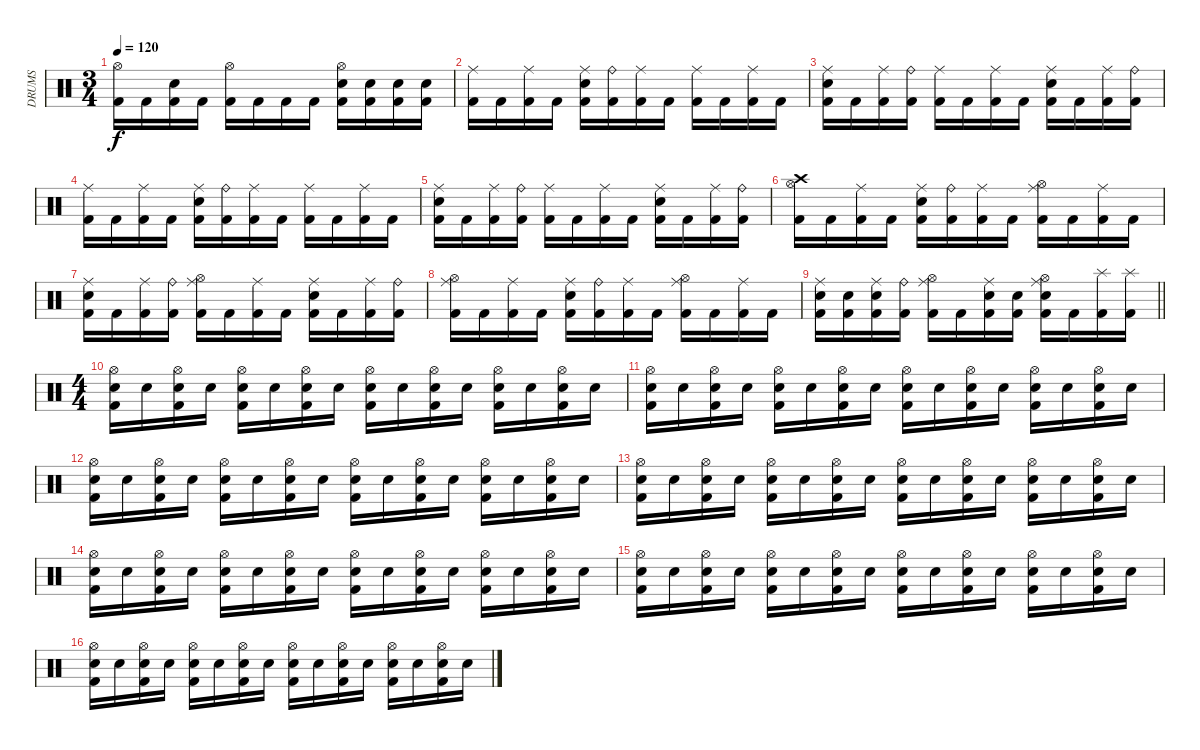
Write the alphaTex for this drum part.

\track ("DRUMS" "DRUMS") {instrument percussion}
\staff {score}
\articulation defaults
\ts (3 4)
\tempo 120
\clef neutral
\ks c
("Hi-Hat (open)" "Kick (hit) 2").16{dy f} "Kick (hit) 2".16 ("Electric Snare (hit)" "Kick (hit) 2").16 "Kick (hit) 2".16 ("Hi-Hat (open)" "Kick (hit) 2").16 "Kick (hit) 2".16 "Kick (hit) 2".16 "Kick (hit) 2".16 ("Hi-Hat (open)" "Electric Snare (hit)" "Kick (hit) 2").16 ("Electric Snare (hit)" "Kick (hit) 2").16 ("Electric Snare (hit)" "Kick (hit) 2").16 ("Electric Snare (hit)" "Kick (hit) 2").16 |
("Ride (middle)" "Kick (hit) 2").16 "Kick (hit) 2".16 ("Ride (middle)" "Kick (hit) 2").16 "Kick (hit) 2".16 ("Ride (middle)" "Electric Snare (hit)" "Kick (hit) 2").16 ("Ride (bell)" "Kick (hit) 2").16 ("Ride (middle)" "Kick (hit) 2").16 "Kick (hit) 2".16 ("Ride (middle)" "Kick (hit) 2").16 "Kick (hit) 2".16 ("Ride (middle)" "Kick (hit) 2").16 "Kick (hit) 2".16 |
("Ride (middle)" "Electric Snare (hit)" "Kick (hit) 2").16 "Kick (hit) 2".16 ("Ride (middle)" "Kick (hit) 2").16 ("Ride (bell)" "Kick (hit) 2").16 ("Ride (middle)" "Kick (hit) 2").16 "Kick (hit) 2".16 ("Ride (middle)" "Kick (hit) 2").16 "Kick (hit) 2".16 ("Ride (middle)" "Electric Snare (hit)" "Kick (hit) 2").16 "Kick (hit) 2".16 ("Ride (middle)" "Kick (hit) 2").16 ("Ride (bell)" "Kick (hit) 2").16 |
("Ride (middle)" "Kick (hit) 2").16 "Kick (hit) 2".16 ("Ride (middle)" "Kick (hit) 2").16 "Kick (hit) 2".16 ("Ride (middle)" "Electric Snare (hit)" "Kick (hit) 2").16 ("Ride (bell)" "Kick (hit) 2").16 ("Ride (middle)" "Kick (hit) 2").16 "Kick (hit) 2".16 ("Ride (middle)" "Kick (hit) 2").16 "Kick (hit) 2".16 ("Ride (middle)" "Kick (hit) 2").16 "Kick (hit) 2".16 |
("Ride (middle)" "Electric Snare (hit)" "Kick (hit) 2").16 "Kick (hit) 2".16 ("Ride (middle)" "Kick (hit) 2").16 ("Ride (bell)" "Kick (hit) 2").16 ("Ride (middle)" "Kick (hit) 2").16 "Kick (hit) 2".16 ("Ride (middle)" "Kick (hit) 2").16 "Kick (hit) 2".16 ("Ride (middle)" "Electric Snare (hit)" "Kick (hit) 2").16 "Kick (hit) 2".16 ("Ride (middle)" "Kick (hit) 2").16 ("Ride (bell)" "Kick (hit) 2").16 |
("Crash high (hit)" "Hi-Hat (open)" "Kick (hit) 2").16 "Kick (hit) 2".16 ("Ride (middle)" "Kick (hit) 2").16 "Kick (hit) 2".16 ("Ride (middle)" "Electric Snare (hit)" "Kick (hit) 2").16 ("Ride (bell)" "Kick (hit) 2").16 ("Ride (middle)" "Kick (hit) 2").16 "Kick (hit) 2".16 ("Ride (middle)" "Hi-Hat (open)" "Kick (hit) 2").16 "Kick (hit) 2".16 ("Ride (middle)" "Kick (hit) 2").16 "Kick (hit) 2".16 |
("Ride (middle)" "Electric Snare (hit)" "Kick (hit) 2").16 "Kick (hit) 2".16 ("Ride (middle)" "Kick (hit) 2").16 ("Ride (bell)" "Kick (hit) 2").16 ("Ride (middle)" "Hi-Hat (open)" "Kick (hit) 2").16 "Kick (hit) 2".16 ("Ride (middle)" "Kick (hit) 2").16 "Kick (hit) 2".16 ("Ride (middle)" "Electric Snare (hit)" "Kick (hit) 2").16 "Kick (hit) 2".16 ("Ride (middle)" "Kick (hit) 2").16 ("Ride (bell)" "Kick (hit) 2").16 |
("Ride (middle)" "Hi-Hat (open)" "Kick (hit) 2").16 "Kick (hit) 2".16 ("Ride (middle)" "Kick (hit) 2").16 "Kick (hit) 2".16 ("Ride (middle)" "Electric Snare (hit)" "Kick (hit) 2").16 ("Ride (bell)" "Kick (hit) 2").16 ("Ride (middle)" "Kick (hit) 2").16 "Kick (hit) 2".16 ("Ride (middle)" "Hi-Hat (open)" "Kick (hit) 2").16 "Kick (hit) 2".16 ("Ride (middle)" "Kick (hit) 2").16 "Kick (hit) 2".16 |
\barLineRight lightlight
("Ride (middle)" "Electric Snare (hit)" "Kick (hit) 2").16 ("Electric Snare (hit)" "Kick (hit) 2").16 ("Ride (middle)" "Electric Snare (hit)" "Kick (hit) 2").16 ("Ride (bell)" "Kick (hit) 2").16 ("Ride (middle)" "Hi-Hat (open)" "Kick (hit) 2").16 "Kick (hit) 2".16 ("Ride (middle)" "Electric Snare (hit)" "Kick (hit) 2").16 ("Electric Snare (hit)" "Kick (hit) 2").16 ("Ride (middle)" "Hi-Hat (open)" "Electric Snare (hit)" "Kick (hit) 2").16 "Kick (hit) 2".16 ("Splash (hit)" "Kick (hit) 2").16 ("Splash (hit)" "Kick (hit) 2").16 |
\ts (4 4)
("Hi-Hat (open)" "Electric Snare (hit)" "Kick (hit) 2").16 "Electric Snare (hit)".16 ("Hi-Hat (open)" "Electric Snare (hit)" "Kick (hit) 2").16 "Electric Snare (hit)".16 ("Hi-Hat (open)" "Electric Snare (hit)" "Kick (hit) 2").16 "Electric Snare (hit)".16 ("Hi-Hat (open)" "Electric Snare (hit)" "Kick (hit) 2").16 "Electric Snare (hit)".16 ("Hi-Hat (open)" "Electric Snare (hit)" "Kick (hit) 2").16 "Electric Snare (hit)".16 ("Hi-Hat (open)" "Electric Snare (hit)" "Kick (hit) 2").16 "Electric Snare (hit)".16 ("Hi-Hat (open)" "Electric Snare (hit)" "Kick (hit) 2").16 "Electric Snare (hit)".16 ("Hi-Hat (open)" "Electric Snare (hit)" "Kick (hit) 2").16 "Electric Snare (hit)".16 |
("Hi-Hat (open)" "Electric Snare (hit)" "Kick (hit) 2").16 "Electric Snare (hit)".16 ("Hi-Hat (open)" "Electric Snare (hit)" "Kick (hit) 2").16 "Electric Snare (hit)".16 ("Hi-Hat (open)" "Electric Snare (hit)" "Kick (hit) 2").16 "Electric Snare (hit)".16 ("Hi-Hat (open)" "Electric Snare (hit)" "Kick (hit) 2").16 "Electric Snare (hit)".16 ("Hi-Hat (open)" "Electric Snare (hit)" "Kick (hit) 2").16 "Electric Snare (hit)".16 ("Hi-Hat (open)" "Electric Snare (hit)" "Kick (hit) 2").16 "Electric Snare (hit)".16 ("Hi-Hat (open)" "Electric Snare (hit)" "Kick (hit) 2").16 "Electric Snare (hit)".16 ("Hi-Hat (open)" "Electric Snare (hit)" "Kick (hit) 2").16 "Electric Snare (hit)".16 |
("Hi-Hat (open)" "Electric Snare (hit)" "Kick (hit) 2").16 "Electric Snare (hit)".16 ("Hi-Hat (open)" "Electric Snare (hit)" "Kick (hit) 2").16 "Electric Snare (hit)".16 ("Hi-Hat (open)" "Electric Snare (hit)" "Kick (hit) 2").16 "Electric Snare (hit)".16 ("Hi-Hat (open)" "Electric Snare (hit)" "Kick (hit) 2").16 "Electric Snare (hit)".16 ("Hi-Hat (open)" "Electric Snare (hit)" "Kick (hit) 2").16 "Electric Snare (hit)".16 ("Hi-Hat (open)" "Electric Snare (hit)" "Kick (hit) 2").16 "Electric Snare (hit)".16 ("Hi-Hat (open)" "Electric Snare (hit)" "Kick (hit) 2").16 "Electric Snare (hit)".16 ("Hi-Hat (open)" "Electric Snare (hit)" "Kick (hit) 2").16 "Electric Snare (hit)".16 |
("Hi-Hat (open)" "Electric Snare (hit)" "Kick (hit) 2").16 "Electric Snare (hit)".16 ("Hi-Hat (open)" "Electric Snare (hit)" "Kick (hit) 2").16 "Electric Snare (hit)".16 ("Hi-Hat (open)" "Electric Snare (hit)" "Kick (hit) 2").16 "Electric Snare (hit)".16 ("Hi-Hat (open)" "Electric Snare (hit)" "Kick (hit) 2").16 "Electric Snare (hit)".16 ("Hi-Hat (open)" "Electric Snare (hit)" "Kick (hit) 2").16 "Electric Snare (hit)".16 ("Hi-Hat (open)" "Electric Snare (hit)" "Kick (hit) 2").16 "Electric Snare (hit)".16 ("Hi-Hat (open)" "Electric Snare (hit)" "Kick (hit) 2").16 "Electric Snare (hit)".16 ("Hi-Hat (open)" "Electric Snare (hit)" "Kick (hit) 2").16 "Electric Snare (hit)".16 |
("Hi-Hat (open)" "Electric Snare (hit)" "Kick (hit) 2").16 "Electric Snare (hit)".16 ("Hi-Hat (open)" "Electric Snare (hit)" "Kick (hit) 2").16 "Electric Snare (hit)".16 ("Hi-Hat (open)" "Electric Snare (hit)" "Kick (hit) 2").16 "Electric Snare (hit)".16 ("Hi-Hat (open)" "Electric Snare (hit)" "Kick (hit) 2").16 "Electric Snare (hit)".16 ("Hi-Hat (open)" "Electric Snare (hit)" "Kick (hit) 2").16 "Electric Snare (hit)".16 ("Hi-Hat (open)" "Electric Snare (hit)" "Kick (hit) 2").16 "Electric Snare (hit)".16 ("Hi-Hat (open)" "Electric Snare (hit)" "Kick (hit) 2").16 "Electric Snare (hit)".16 ("Hi-Hat (open)" "Electric Snare (hit)" "Kick (hit) 2").16 "Electric Snare (hit)".16 |
("Hi-Hat (open)" "Electric Snare (hit)" "Kick (hit) 2").16 "Electric Snare (hit)".16 ("Hi-Hat (open)" "Electric Snare (hit)" "Kick (hit) 2").16 "Electric Snare (hit)".16 ("Hi-Hat (open)" "Electric Snare (hit)" "Kick (hit) 2").16 "Electric Snare (hit)".16 ("Hi-Hat (open)" "Electric Snare (hit)" "Kick (hit) 2").16 "Electric Snare (hit)".16 ("Hi-Hat (open)" "Electric Snare (hit)" "Kick (hit) 2").16 "Electric Snare (hit)".16 ("Hi-Hat (open)" "Electric Snare (hit)" "Kick (hit) 2").16 "Electric Snare (hit)".16 ("Hi-Hat (open)" "Electric Snare (hit)" "Kick (hit) 2").16 "Electric Snare (hit)".16 ("Hi-Hat (open)" "Electric Snare (hit)" "Kick (hit) 2").16 "Electric Snare (hit)".16 |
("Hi-Hat (open)" "Electric Snare (hit)" "Kick (hit) 2").16 "Electric Snare (hit)".16 ("Hi-Hat (open)" "Electric Snare (hit)" "Kick (hit) 2").16 "Electric Snare (hit)".16 ("Hi-Hat (open)" "Electric Snare (hit)" "Kick (hit) 2").16 "Electric Snare (hit)".16 ("Hi-Hat (open)" "Electric Snare (hit)" "Kick (hit) 2").16 "Electric Snare (hit)".16 ("Hi-Hat (open)" "Electric Snare (hit)" "Kick (hit) 2").16 "Electric Snare (hit)".16 ("Hi-Hat (open)" "Electric Snare (hit)" "Kick (hit) 2").16 "Electric Snare (hit)".16 ("Hi-Hat (open)" "Electric Snare (hit)" "Kick (hit) 2").16 "Electric Snare (hit)".16 ("Hi-Hat (open)" "Electric Snare (hit)" "Kick (hit) 2").16 "Electric Snare (hit)".16
